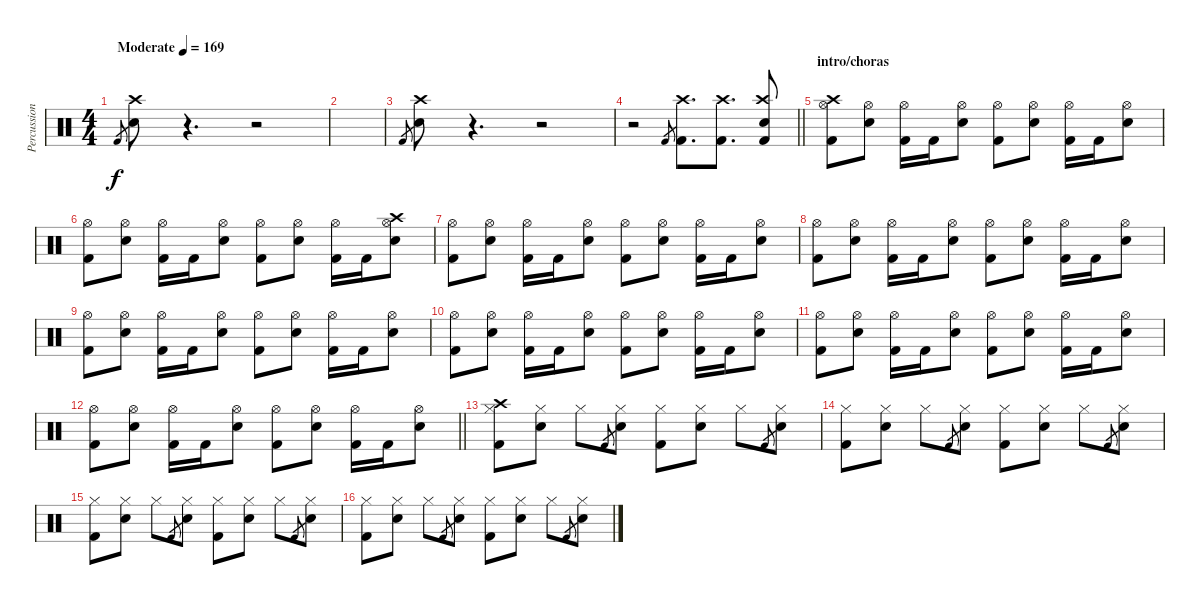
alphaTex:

\track ("Percussion" "Percussion") {instrument percussion}
\staff {score}
\articulation defaults
\ts (4 4)
\tempo (169 "Moderate")
\clef neutral
\ks c "Kick (hit) 2".8{gr dy f}
("Crash high (hit)" "Electric Snare (hit)").8 r.4{d} r.2 |
|
"Kick (hit) 2".8{gr} ("Crash high (hit)" "Electric Snare (hit)").8 r.4{d} r.2 |
\barLineRight lightlight
r.2 "Kick (hit) 2".8{gr} ("Crash high (hit)" "Kick (hit) 2").8{d} ("Crash high (hit)" "Kick (hit) 2").8{d} ("Crash high (hit)" "Electric Snare (hit)" "Kick (hit) 2").8 |
\section ("" "intro/choras")
("Crash high (hit)" "Hi-Hat (open)" "Kick (hit) 2").8 ("Hi-Hat (open)" "Electric Snare (hit)").8 ("Hi-Hat (open)" "Kick (hit) 2").16 "Kick (hit) 2".16 ("Hi-Hat (open)" "Electric Snare (hit)").8 ("Hi-Hat (open)" "Kick (hit) 2").8 ("Hi-Hat (open)" "Electric Snare (hit)").8 ("Hi-Hat (open)" "Kick (hit) 2").16 "Kick (hit) 2".16 ("Hi-Hat (open)" "Electric Snare (hit)").8 |
("Hi-Hat (open)" "Kick (hit) 2").8 ("Hi-Hat (open)" "Electric Snare (hit)").8 ("Hi-Hat (open)" "Kick (hit) 2").16 "Kick (hit) 2".16 ("Hi-Hat (open)" "Electric Snare (hit)").8 ("Hi-Hat (open)" "Kick (hit) 2").8 ("Hi-Hat (open)" "Electric Snare (hit)").8 ("Hi-Hat (open)" "Kick (hit) 2").16 "Kick (hit) 2".16 ("Crash high (hit)" "Hi-Hat (open)" "Electric Snare (hit)").8 |
("Hi-Hat (open)" "Kick (hit) 2").8 ("Hi-Hat (open)" "Electric Snare (hit)").8 ("Hi-Hat (open)" "Kick (hit) 2").16 "Kick (hit) 2".16 ("Hi-Hat (open)" "Electric Snare (hit)").8 ("Hi-Hat (open)" "Kick (hit) 2").8 ("Hi-Hat (open)" "Electric Snare (hit)").8 ("Hi-Hat (open)" "Kick (hit) 2").16 "Kick (hit) 2".16 ("Hi-Hat (open)" "Electric Snare (hit)").8 |
("Hi-Hat (open)" "Kick (hit) 2").8 ("Hi-Hat (open)" "Electric Snare (hit)").8 ("Hi-Hat (open)" "Kick (hit) 2").16 "Kick (hit) 2".16 ("Hi-Hat (open)" "Electric Snare (hit)").8 ("Hi-Hat (open)" "Kick (hit) 2").8 ("Hi-Hat (open)" "Electric Snare (hit)").8 ("Hi-Hat (open)" "Kick (hit) 2").16 "Kick (hit) 2".16 ("Hi-Hat (open)" "Electric Snare (hit)").8 |
("Hi-Hat (open)" "Kick (hit) 2").8 ("Hi-Hat (open)" "Electric Snare (hit)").8 ("Hi-Hat (open)" "Kick (hit) 2").16 "Kick (hit) 2".16 ("Hi-Hat (open)" "Electric Snare (hit)").8 ("Hi-Hat (open)" "Kick (hit) 2").8 ("Hi-Hat (open)" "Electric Snare (hit)").8 ("Hi-Hat (open)" "Kick (hit) 2").16 "Kick (hit) 2".16 ("Hi-Hat (open)" "Electric Snare (hit)").8 |
("Hi-Hat (open)" "Kick (hit) 2").8 ("Hi-Hat (open)" "Electric Snare (hit)").8 ("Hi-Hat (open)" "Kick (hit) 2").16 "Kick (hit) 2".16 ("Hi-Hat (open)" "Electric Snare (hit)").8 ("Hi-Hat (open)" "Kick (hit) 2").8 ("Hi-Hat (open)" "Electric Snare (hit)").8 ("Hi-Hat (open)" "Kick (hit) 2").16 "Kick (hit) 2".16 ("Hi-Hat (open)" "Electric Snare (hit)").8 |
("Hi-Hat (open)" "Kick (hit) 2").8 ("Hi-Hat (open)" "Electric Snare (hit)").8 ("Hi-Hat (open)" "Kick (hit) 2").16 "Kick (hit) 2".16 ("Hi-Hat (open)" "Electric Snare (hit)").8 ("Hi-Hat (open)" "Kick (hit) 2").8 ("Hi-Hat (open)" "Electric Snare (hit)").8 ("Hi-Hat (open)" "Kick (hit) 2").16 "Kick (hit) 2".16 ("Hi-Hat (open)" "Electric Snare (hit)").8 |
\barLineRight lightlight
("Hi-Hat (open)" "Kick (hit) 2").8 ("Hi-Hat (open)" "Electric Snare (hit)").8 ("Hi-Hat (open)" "Kick (hit) 2").16 "Kick (hit) 2".16 ("Hi-Hat (open)" "Electric Snare (hit)").8 ("Hi-Hat (open)" "Kick (hit) 2").8 ("Hi-Hat (open)" "Electric Snare (hit)").8 ("Hi-Hat (open)" "Kick (hit) 2").16 "Kick (hit) 2".16 ("Hi-Hat (open)" "Electric Snare (hit)").8 |
("Crash high (hit)" "Hi-Hat (closed)" "Kick (hit) 2").8 ("Hi-Hat (closed)" "Electric Snare (hit)").8 "Hi-Hat (closed)".8 "Kick (hit) 2".8{gr} ("Hi-Hat (closed)" "Electric Snare (hit)").8 ("Hi-Hat (closed)" "Kick (hit) 2").8 ("Hi-Hat (closed)" "Electric Snare (hit)").8 "Hi-Hat (closed)".8 "Kick (hit) 2".8{gr} ("Hi-Hat (closed)" "Electric Snare (hit)").8 |
("Hi-Hat (closed)" "Kick (hit) 2").8 ("Hi-Hat (closed)" "Electric Snare (hit)").8 "Hi-Hat (closed)".8 "Kick (hit) 2".8{gr} ("Hi-Hat (closed)" "Electric Snare (hit)").8 ("Hi-Hat (closed)" "Kick (hit) 2").8 ("Hi-Hat (closed)" "Electric Snare (hit)").8 "Hi-Hat (closed)".8 "Kick (hit) 2".8{gr} ("Hi-Hat (closed)" "Electric Snare (hit)").8 |
("Hi-Hat (closed)" "Kick (hit) 2").8 ("Hi-Hat (closed)" "Electric Snare (hit)").8 "Hi-Hat (closed)".8 "Kick (hit) 2".8{gr} ("Hi-Hat (closed)" "Electric Snare (hit)").8 ("Hi-Hat (closed)" "Kick (hit) 2").8 ("Hi-Hat (closed)" "Electric Snare (hit)").8 "Hi-Hat (closed)".8 "Kick (hit) 2".8{gr} ("Hi-Hat (closed)" "Electric Snare (hit)").8 |
("Hi-Hat (closed)" "Kick (hit) 2").8 ("Hi-Hat (closed)" "Electric Snare (hit)").8 "Hi-Hat (closed)".8 "Kick (hit) 2".8{gr} ("Hi-Hat (closed)" "Electric Snare (hit)").8 ("Hi-Hat (closed)" "Kick (hit) 2").8 ("Hi-Hat (closed)" "Electric Snare (hit)").8 "Hi-Hat (closed)".8 "Kick (hit) 2".8{gr} ("Hi-Hat (closed)" "Electric Snare (hit)").8
